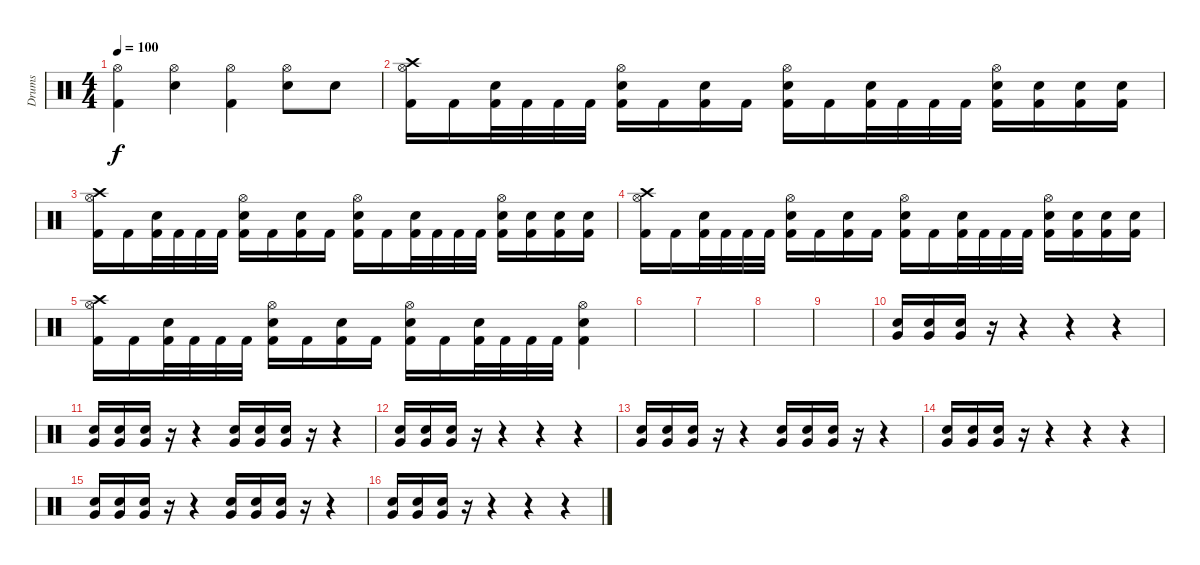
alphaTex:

\track ("Drums" "Drums") {instrument percussion}
\staff {score}
\articulation defaults
\ts (4 4)
\tempo 100
\clef neutral
\ks c
("Hi-Hat (open)" "Kick (hit) 2").4{dy f} ("Hi-Hat (open)" "Electric Snare (hit)").4 ("Hi-Hat (open)" "Kick (hit) 2").4 ("Hi-Hat (open)" "Electric Snare (hit)").8 "Electric Snare (hit)".8 |
("Crash high (hit)" "Hi-Hat (open)" "Kick (hit) 2").16 "Kick (hit) 2".16 ("Electric Snare (hit)" "Kick (hit) 2").32 "Kick (hit) 2".32 "Kick (hit) 2".32 "Kick (hit) 2".32 ("Hi-Hat (open)" "Electric Snare (hit)" "Kick (hit) 2").16 "Kick (hit) 2".16 ("Electric Snare (hit)" "Kick (hit) 2").16 "Kick (hit) 2".16 ("Hi-Hat (open)" "Electric Snare (hit)" "Kick (hit) 2").16 "Kick (hit) 2".16 ("Electric Snare (hit)" "Kick (hit) 2").32 "Kick (hit) 2".32 "Kick (hit) 2".32 "Kick (hit) 2".32 ("Hi-Hat (open)" "Electric Snare (hit)" "Kick (hit) 2").16 ("Electric Snare (hit)" "Kick (hit) 2").16 ("Electric Snare (hit)" "Kick (hit) 2").16 ("Electric Snare (hit)" "Kick (hit) 2").16 |
("Crash high (hit)" "Hi-Hat (open)" "Kick (hit) 2").16 "Kick (hit) 2".16 ("Electric Snare (hit)" "Kick (hit) 2").32 "Kick (hit) 2".32 "Kick (hit) 2".32 "Kick (hit) 2".32 ("Hi-Hat (open)" "Electric Snare (hit)" "Kick (hit) 2").16 "Kick (hit) 2".16 ("Electric Snare (hit)" "Kick (hit) 2").16 "Kick (hit) 2".16 ("Hi-Hat (open)" "Electric Snare (hit)" "Kick (hit) 2").16 "Kick (hit) 2".16 ("Electric Snare (hit)" "Kick (hit) 2").32 "Kick (hit) 2".32 "Kick (hit) 2".32 "Kick (hit) 2".32 ("Hi-Hat (open)" "Electric Snare (hit)" "Kick (hit) 2").16 ("Electric Snare (hit)" "Kick (hit) 2").16 ("Electric Snare (hit)" "Kick (hit) 2").16 ("Electric Snare (hit)" "Kick (hit) 2").16 |
("Crash high (hit)" "Hi-Hat (open)" "Kick (hit) 2").16 "Kick (hit) 2".16 ("Electric Snare (hit)" "Kick (hit) 2").32 "Kick (hit) 2".32 "Kick (hit) 2".32 "Kick (hit) 2".32 ("Hi-Hat (open)" "Electric Snare (hit)" "Kick (hit) 2").16 "Kick (hit) 2".16 ("Electric Snare (hit)" "Kick (hit) 2").16 "Kick (hit) 2".16 ("Hi-Hat (open)" "Electric Snare (hit)" "Kick (hit) 2").16 "Kick (hit) 2".16 ("Electric Snare (hit)" "Kick (hit) 2").32 "Kick (hit) 2".32 "Kick (hit) 2".32 "Kick (hit) 2".32 ("Hi-Hat (open)" "Electric Snare (hit)" "Kick (hit) 2").16 ("Electric Snare (hit)" "Kick (hit) 2").16 ("Electric Snare (hit)" "Kick (hit) 2").16 ("Electric Snare (hit)" "Kick (hit) 2").16 |
("Crash high (hit)" "Hi-Hat (open)" "Kick (hit) 2").16 "Kick (hit) 2".16 ("Electric Snare (hit)" "Kick (hit) 2").32 "Kick (hit) 2".32 "Kick (hit) 2".32 "Kick (hit) 2".32 ("Hi-Hat (open)" "Electric Snare (hit)" "Kick (hit) 2").16 "Kick (hit) 2".16 ("Electric Snare (hit)" "Kick (hit) 2").16 "Kick (hit) 2".16 ("Hi-Hat (open)" "Electric Snare (hit)" "Kick (hit) 2").16 "Kick (hit) 2".16 ("Electric Snare (hit)" "Kick (hit) 2").32 "Kick (hit) 2".32 "Kick (hit) 2".32 "Kick (hit) 2".32 ("Hi-Hat (open)" "Electric Snare (hit)" "Kick (hit) 2").4 |
|
|
|
|
("Electric Snare (hit)" "Very Low Tom (hit)").16 ("Electric Snare (hit)" "Very Low Tom (hit)").16 ("Electric Snare (hit)" "Very Low Tom (hit)").16 r.16 r.4 r.4 r.4 |
("Electric Snare (hit)" "Very Low Tom (hit)").16 ("Electric Snare (hit)" "Very Low Tom (hit)").16 ("Electric Snare (hit)" "Very Low Tom (hit)").16 r.16 r.4 ("Electric Snare (hit)" "Very Low Tom (hit)").16 ("Electric Snare (hit)" "Very Low Tom (hit)").16 ("Electric Snare (hit)" "Very Low Tom (hit)").16 r.16 r.4 |
("Electric Snare (hit)" "Very Low Tom (hit)").16 ("Electric Snare (hit)" "Very Low Tom (hit)").16 ("Electric Snare (hit)" "Very Low Tom (hit)").16 r.16 r.4 r.4 r.4 |
("Electric Snare (hit)" "Very Low Tom (hit)").16 ("Electric Snare (hit)" "Very Low Tom (hit)").16 ("Electric Snare (hit)" "Very Low Tom (hit)").16 r.16 r.4 ("Electric Snare (hit)" "Very Low Tom (hit)").16 ("Electric Snare (hit)" "Very Low Tom (hit)").16 ("Electric Snare (hit)" "Very Low Tom (hit)").16 r.16 r.4 |
("Electric Snare (hit)" "Very Low Tom (hit)").16 ("Electric Snare (hit)" "Very Low Tom (hit)").16 ("Electric Snare (hit)" "Very Low Tom (hit)").16 r.16 r.4 r.4 r.4 |
("Electric Snare (hit)" "Very Low Tom (hit)").16 ("Electric Snare (hit)" "Very Low Tom (hit)").16 ("Electric Snare (hit)" "Very Low Tom (hit)").16 r.16 r.4 ("Electric Snare (hit)" "Very Low Tom (hit)").16 ("Electric Snare (hit)" "Very Low Tom (hit)").16 ("Electric Snare (hit)" "Very Low Tom (hit)").16 r.16 r.4 |
("Electric Snare (hit)" "Very Low Tom (hit)").16 ("Electric Snare (hit)" "Very Low Tom (hit)").16 ("Electric Snare (hit)" "Very Low Tom (hit)").16 r.16 r.4 r.4 r.4
